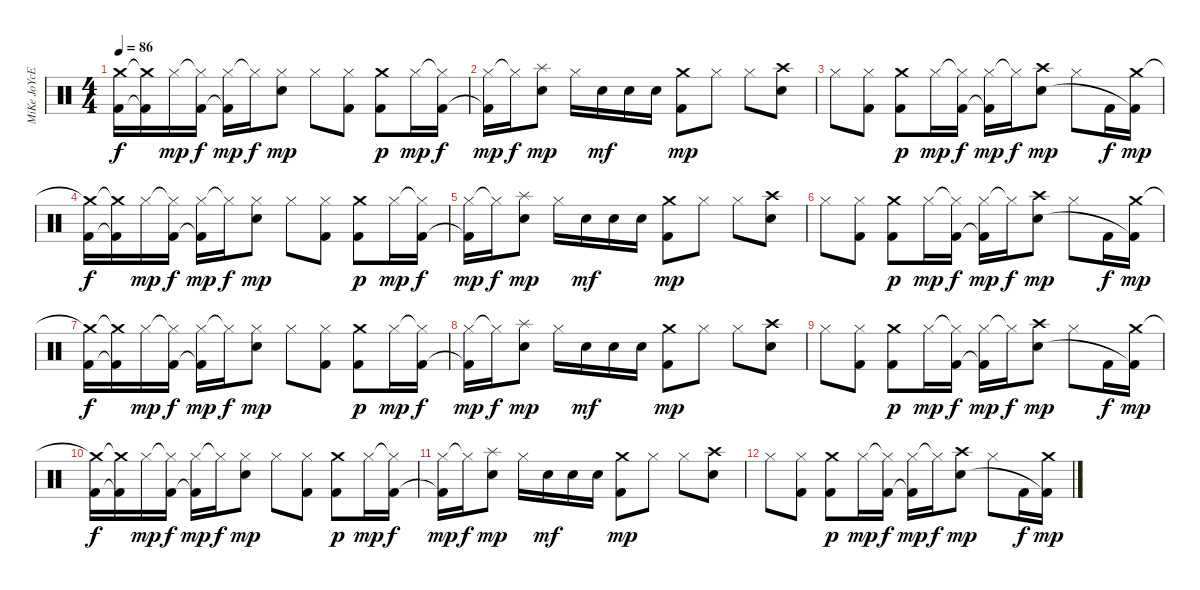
\track ("MiKe JoYcE" "MiKe JoYcE") {instrument percussion}
\staff {score}
\articulation defaults
\ts (4 4)
\tempo 86
\clef neutral
\ks c
("Crash medium (hit)"{t} "Kick (hit) 2").16{dy f} ("Crash medium (hit)"{t} "Kick (hit) 2"{t}).16 "Hi-Hat (closed)".16{dy mp} ("Hi-Hat (closed)"{t} "Kick (hit) 2").16{dy f} ("Hi-Hat (closed)" "Kick (hit) 2"{t}).16{dy mp} "Hi-Hat (closed)"{t}.16{dy f} ("Hi-Hat (closed)" "Electric Snare (hit)").8{dy mp} "Hi-Hat (closed)".8 ("Hi-Hat (closed)" "Kick (hit) 2").8 ("Crash medium (hit)" "Kick (hit) 2").8{dy p} "Hi-Hat (closed)".16{dy mp} ("Hi-Hat (closed)"{t} "Kick (hit) 2").16{dy f} |
("Hi-Hat (closed)" "Kick (hit) 2"{t}).16{dy mp} "Hi-Hat (closed)"{t}.16{dy f} ("Splash (hit)" "Electric Snare (hit)").8{dy mp} "Hi-Hat (closed)".16 "Electric Snare (hit)".16{dy mf} "Electric Snare (hit)".16 "Electric Snare (hit)".16 ("Crash medium (hit)" "Kick (hit) 2").8{dy mp} "Hi-Hat (closed)".8 "Hi-Hat (closed)".8 ("Crash high (hit)" "Electric Snare (hit)").8 |
"Hi-Hat (closed)".8 ("Hi-Hat (closed)" "Kick (hit) 2").8 ("Crash medium (hit)" "Kick (hit) 2").8{dy p} "Hi-Hat (closed)".16{dy mp} ("Hi-Hat (closed)"{t} "Kick (hit) 2").16{dy f} ("Hi-Hat (closed)" "Kick (hit) 2"{t}).16{dy mp} "Hi-Hat (closed)"{t}.16{dy f} ("Crash high (hit)" "Electric Snare (hit)").8{dy mp} "Hi-Hat (closed)".8 "Kick (hit) 2".16{dy f} ("Crash medium (hit)" "Kick (hit) 2"{t}).16{dy mp} |
("Crash medium (hit)"{t} "Kick (hit) 2").16{dy f} ("Crash medium (hit)"{t} "Kick (hit) 2"{t}).16 "Hi-Hat (closed)".16{dy mp} ("Hi-Hat (closed)"{t} "Kick (hit) 2").16{dy f} ("Hi-Hat (closed)" "Kick (hit) 2"{t}).16{dy mp} "Hi-Hat (closed)"{t}.16{dy f} ("Hi-Hat (closed)" "Electric Snare (hit)").8{dy mp} "Hi-Hat (closed)".8 ("Hi-Hat (closed)" "Kick (hit) 2").8 ("Crash medium (hit)" "Kick (hit) 2").8{dy p} "Hi-Hat (closed)".16{dy mp} ("Hi-Hat (closed)"{t} "Kick (hit) 2").16{dy f} |
("Hi-Hat (closed)" "Kick (hit) 2"{t}).16{dy mp} "Hi-Hat (closed)"{t}.16{dy f} ("Splash (hit)" "Electric Snare (hit)").8{dy mp} "Hi-Hat (closed)".16 "Electric Snare (hit)".16{dy mf} "Electric Snare (hit)".16 "Electric Snare (hit)".16 ("Crash medium (hit)" "Kick (hit) 2").8{dy mp} "Hi-Hat (closed)".8 "Hi-Hat (closed)".8 ("Crash high (hit)" "Electric Snare (hit)").8 |
"Hi-Hat (closed)".8 ("Hi-Hat (closed)" "Kick (hit) 2").8 ("Crash medium (hit)" "Kick (hit) 2").8{dy p} "Hi-Hat (closed)".16{dy mp} ("Hi-Hat (closed)"{t} "Kick (hit) 2").16{dy f} ("Hi-Hat (closed)" "Kick (hit) 2"{t}).16{dy mp} "Hi-Hat (closed)"{t}.16{dy f} ("Crash high (hit)" "Electric Snare (hit)").8{dy mp} "Hi-Hat (closed)".8 "Kick (hit) 2".16{dy f} ("Crash medium (hit)" "Kick (hit) 2"{t}).16{dy mp} |
("Crash medium (hit)"{t} "Kick (hit) 2").16{dy f} ("Crash medium (hit)"{t} "Kick (hit) 2"{t}).16 "Hi-Hat (closed)".16{dy mp} ("Hi-Hat (closed)"{t} "Kick (hit) 2").16{dy f} ("Hi-Hat (closed)" "Kick (hit) 2"{t}).16{dy mp} "Hi-Hat (closed)"{t}.16{dy f} ("Hi-Hat (closed)" "Electric Snare (hit)").8{dy mp} "Hi-Hat (closed)".8 ("Hi-Hat (closed)" "Kick (hit) 2").8 ("Crash medium (hit)" "Kick (hit) 2").8{dy p} "Hi-Hat (closed)".16{dy mp} ("Hi-Hat (closed)"{t} "Kick (hit) 2").16{dy f} |
("Hi-Hat (closed)" "Kick (hit) 2"{t}).16{dy mp} "Hi-Hat (closed)"{t}.16{dy f} ("Splash (hit)" "Electric Snare (hit)").8{dy mp} "Hi-Hat (closed)".16 "Electric Snare (hit)".16{dy mf} "Electric Snare (hit)".16 "Electric Snare (hit)".16 ("Crash medium (hit)" "Kick (hit) 2").8{dy mp} "Hi-Hat (closed)".8 "Hi-Hat (closed)".8 ("Crash high (hit)" "Electric Snare (hit)").8 |
"Hi-Hat (closed)".8 ("Hi-Hat (closed)" "Kick (hit) 2").8 ("Crash medium (hit)" "Kick (hit) 2").8{dy p} "Hi-Hat (closed)".16{dy mp} ("Hi-Hat (closed)"{t} "Kick (hit) 2").16{dy f} ("Hi-Hat (closed)" "Kick (hit) 2"{t}).16{dy mp} "Hi-Hat (closed)"{t}.16{dy f} ("Crash high (hit)" "Electric Snare (hit)").8{dy mp} "Hi-Hat (closed)".8 "Kick (hit) 2".16{dy f} ("Crash medium (hit)" "Kick (hit) 2"{t}).16{dy mp} |
("Crash medium (hit)"{t} "Kick (hit) 2").16{dy f} ("Crash medium (hit)"{t} "Kick (hit) 2"{t}).16 "Hi-Hat (closed)".16{dy mp} ("Hi-Hat (closed)"{t} "Kick (hit) 2").16{dy f} ("Hi-Hat (closed)" "Kick (hit) 2"{t}).16{dy mp} "Hi-Hat (closed)"{t}.16{dy f} ("Hi-Hat (closed)" "Electric Snare (hit)").8{dy mp} "Hi-Hat (closed)".8 ("Hi-Hat (closed)" "Kick (hit) 2").8 ("Crash medium (hit)" "Kick (hit) 2").8{dy p} "Hi-Hat (closed)".16{dy mp} ("Hi-Hat (closed)"{t} "Kick (hit) 2").16{dy f} |
("Hi-Hat (closed)" "Kick (hit) 2"{t}).16{dy mp} "Hi-Hat (closed)"{t}.16{dy f} ("Splash (hit)" "Electric Snare (hit)").8{dy mp} "Hi-Hat (closed)".16 "Electric Snare (hit)".16{dy mf} "Electric Snare (hit)".16 "Electric Snare (hit)".16 ("Crash medium (hit)" "Kick (hit) 2").8{dy mp} "Hi-Hat (closed)".8 "Hi-Hat (closed)".8 ("Crash high (hit)" "Electric Snare (hit)").8 |
"Hi-Hat (closed)".8 ("Hi-Hat (closed)" "Kick (hit) 2").8 ("Crash medium (hit)" "Kick (hit) 2").8{dy p} "Hi-Hat (closed)".16{dy mp} ("Hi-Hat (closed)"{t} "Kick (hit) 2").16{dy f} ("Hi-Hat (closed)" "Kick (hit) 2"{t}).16{dy mp} "Hi-Hat (closed)"{t}.16{dy f} ("Crash high (hit)" "Electric Snare (hit)").8{dy mp} "Hi-Hat (closed)".8 "Kick (hit) 2".16{dy f} ("Crash medium (hit)" "Kick (hit) 2"{t}).16{dy mp}
